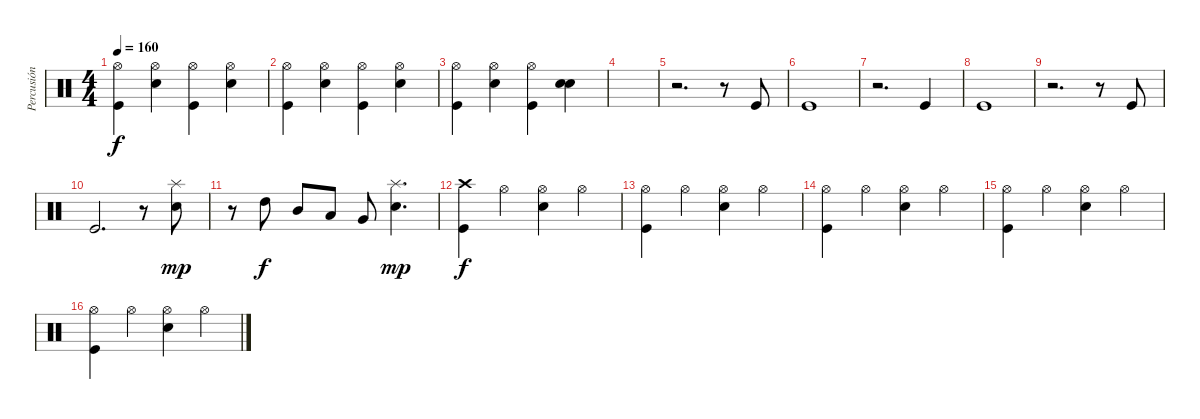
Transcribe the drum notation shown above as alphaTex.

\track ("Percusión" "Percusión") {instrument percussion}
\staff {score}
\articulation defaults
\ts (4 4)
\tempo 160
\clef neutral
\ks c
("Kick (hit)" "Hi-Hat (open)").4{dy f} ("Snare (hit) 2" "Hi-Hat (open)").4 ("Kick (hit)" "Hi-Hat (open)").4 ("Snare (hit) 2" "Hi-Hat (open)").4 |
("Kick (hit)" "Hi-Hat (open)").4 ("Snare (hit) 2" "Hi-Hat (open)").4 ("Kick (hit)" "Hi-Hat (open)").4 ("Snare (hit) 2" "Hi-Hat (open)").4 |
("Kick (hit)" "Hi-Hat (open)").4 ("Snare (hit) 2" "Hi-Hat (open)").4 ("Kick (hit)" "Hi-Hat (open)").4 ("Snare (hit) 2" "Snare (hit) 2").4 |
|
r.2{d} r.8 "Kick (hit)".8 |
"Kick (hit)".1 |
r.2{d} "Kick (hit)".4 |
"Kick (hit)".1 |
r.2{d} r.8 "Kick (hit)".8 |
"Kick (hit)".2{d} r.8 ("Snare (hit) 2" "Splash (hit)").8{dy mp} |
r.8 "High Tom (hit)".8{dy f} "Mid Tom (hit)".8 "Low Tom (hit)".8 "Very Low Tom (hit)".8 ("Snare (hit) 2" "Splash (hit)").4{d dy mp} |
("Kick (hit)" "Crash high (hit)").4{dy f} "Hi-Hat (open)".4 ("Snare (hit) 2" "Hi-Hat (open)").4 "Hi-Hat (open)".4 |
("Kick (hit)" "Hi-Hat (open)").4 "Hi-Hat (open)".4 ("Snare (hit) 2" "Hi-Hat (open)").4 "Hi-Hat (open)".4 |
("Kick (hit)" "Hi-Hat (open)").4 "Hi-Hat (open)".4 ("Snare (hit) 2" "Hi-Hat (open)").4 "Hi-Hat (open)".4 |
("Kick (hit)" "Hi-Hat (open)").4 "Hi-Hat (open)".4 ("Snare (hit) 2" "Hi-Hat (open)").4 "Hi-Hat (open)".4 |
("Kick (hit)" "Hi-Hat (open)").4 "Hi-Hat (open)".4 ("Snare (hit) 2" "Hi-Hat (open)").4 "Hi-Hat (open)".4
